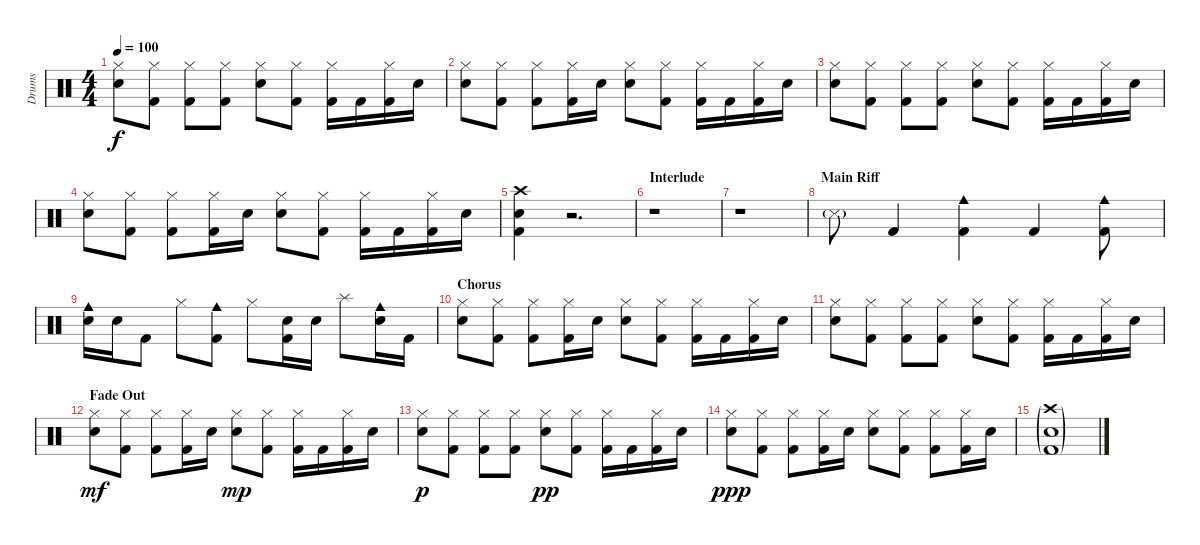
\track ("Drums" "Drums") {instrument percussion}
\staff {score}
\articulation defaults
\ts (4 4)
\tempo 100
\clef neutral
\ks c
("Hi-Hat (closed)" "Snare (hit) 2").8{dy f} ("Hi-Hat (closed)" "Kick (hit) 2").8 ("Hi-Hat (closed)" "Kick (hit) 2").8 ("Hi-Hat (closed)" "Kick (hit) 2").8 ("Hi-Hat (closed)" "Snare (hit) 2").8 ("Hi-Hat (closed)" "Kick (hit) 2").8 ("Hi-Hat (closed)" "Kick (hit) 2").16 "Kick (hit) 2".16 ("Hi-Hat (closed)" "Kick (hit) 2").16 "Snare (hit) 2".16 |
("Hi-Hat (closed)" "Snare (hit) 2").8 ("Hi-Hat (closed)" "Kick (hit) 2").8 ("Hi-Hat (closed)" "Kick (hit) 2").8 ("Hi-Hat (closed)" "Kick (hit) 2").16 "Snare (hit) 2".16 ("Hi-Hat (closed)" "Snare (hit) 2").8 ("Hi-Hat (closed)" "Kick (hit) 2").8 ("Hi-Hat (closed)" "Kick (hit) 2").16 "Kick (hit) 2".16 ("Hi-Hat (closed)" "Kick (hit) 2").16 "Snare (hit) 2".16 |
("Hi-Hat (closed)" "Snare (hit) 2").8 ("Hi-Hat (closed)" "Kick (hit) 2").8 ("Hi-Hat (closed)" "Kick (hit) 2").8 ("Hi-Hat (closed)" "Kick (hit) 2").8 ("Hi-Hat (closed)" "Snare (hit) 2").8 ("Hi-Hat (closed)" "Kick (hit) 2").8 ("Hi-Hat (closed)" "Kick (hit) 2").16 "Kick (hit) 2".16 ("Hi-Hat (closed)" "Kick (hit) 2").16 "Snare (hit) 2".16 |
("Hi-Hat (closed)" "Snare (hit) 2").8 ("Hi-Hat (closed)" "Kick (hit) 2").8 ("Hi-Hat (closed)" "Kick (hit) 2").8 ("Hi-Hat (closed)" "Kick (hit) 2").16 "Snare (hit) 2".16 ("Hi-Hat (closed)" "Snare (hit) 2").8 ("Hi-Hat (closed)" "Kick (hit) 2").8 ("Hi-Hat (closed)" "Kick (hit) 2").16 "Kick (hit) 2".16 ("Hi-Hat (closed)" "Kick (hit) 2").16 "Snare (hit) 2".16 |
("Crash high (hit)" "Snare (hit) 2" "Kick (hit) 2").4 r.2{d} |
\section ("" "Interlude")
r.1 |
r.1 |
\section ("" "Main Riff")
"Snare (side stick) 3"{g}.8 "Kick (hit) 2".4 ("Cowbell medium (hit)" "Kick (hit) 2").4 "Kick (hit) 2".4 ("Cowbell medium (hit)" "Kick (hit) 2").8 |
("Cowbell medium (hit)" "Snare (hit) 2").16 "Snare (hit) 2".16 "Kick (hit) 2".8 "Hi-Hat (closed)".8 ("Cowbell medium (hit)" "Kick (hit) 2").8 "Hi-Hat (closed)".8 ("Snare (hit) 2" "Kick (hit) 2").16 "Snare (hit) 2".16 "Splash (hit)".8 ("Cowbell medium (hit)" "Snare (hit) 2").16 "Kick (hit) 2".16 |
\section ("" "Chorus")
("Hi-Hat (closed)" "Snare (hit) 2").8 ("Hi-Hat (closed)" "Kick (hit) 2").8 ("Hi-Hat (closed)" "Kick (hit) 2").8 ("Hi-Hat (closed)" "Kick (hit) 2").16 "Snare (hit) 2".16 ("Hi-Hat (closed)" "Snare (hit) 2").8 ("Hi-Hat (closed)" "Kick (hit) 2").8 ("Hi-Hat (closed)" "Kick (hit) 2").16 "Kick (hit) 2".16 ("Hi-Hat (closed)" "Kick (hit) 2").16 "Snare (hit) 2".16 |
("Hi-Hat (closed)" "Snare (hit) 2").8 ("Hi-Hat (closed)" "Kick (hit) 2").8 ("Hi-Hat (closed)" "Kick (hit) 2").8 ("Hi-Hat (closed)" "Kick (hit) 2").8 ("Hi-Hat (closed)" "Snare (hit) 2").8 ("Hi-Hat (closed)" "Kick (hit) 2").8 ("Hi-Hat (closed)" "Kick (hit) 2").16 "Kick (hit) 2".16 ("Hi-Hat (closed)" "Kick (hit) 2").16 "Snare (hit) 2".16 |
\section ("" "Fade Out")
("Hi-Hat (closed)" "Snare (hit) 2").8{dy mf} ("Hi-Hat (closed)" "Kick (hit) 2").8 ("Hi-Hat (closed)" "Kick (hit) 2").8 ("Hi-Hat (closed)" "Kick (hit) 2").16 "Snare (hit) 2".16 ("Hi-Hat (closed)" "Snare (hit) 2").8{dy mp} ("Hi-Hat (closed)" "Kick (hit) 2").8 ("Hi-Hat (closed)" "Kick (hit) 2").16 "Kick (hit) 2".16 ("Hi-Hat (closed)" "Kick (hit) 2").16 "Snare (hit) 2".16 |
("Hi-Hat (closed)" "Snare (hit) 2").8{dy p} ("Hi-Hat (closed)" "Kick (hit) 2").8 ("Hi-Hat (closed)" "Kick (hit) 2").8 ("Hi-Hat (closed)" "Kick (hit) 2").8 ("Hi-Hat (closed)" "Snare (hit) 2").8{dy pp} ("Hi-Hat (closed)" "Kick (hit) 2").8 ("Hi-Hat (closed)" "Kick (hit) 2").16 "Kick (hit) 2".16 ("Hi-Hat (closed)" "Kick (hit) 2").16 "Snare (hit) 2".16 |
("Hi-Hat (closed)" "Snare (hit) 2").8{dy ppp} ("Hi-Hat (closed)" "Kick (hit) 2").8 ("Hi-Hat (closed)" "Kick (hit) 2").8 ("Hi-Hat (closed)" "Kick (hit) 2").16 "Snare (hit) 2".16 ("Hi-Hat (closed)" "Snare (hit) 2").8 ("Hi-Hat (closed)" "Kick (hit) 2").8 ("Hi-Hat (closed)" "Kick (hit) 2").8 ("Hi-Hat (closed)" "Kick (hit) 2").16 "Snare (hit) 2".16 |
("Crash high (hit)"{g} "Snare (hit) 2"{g} "Kick (hit) 2"{g}).1
